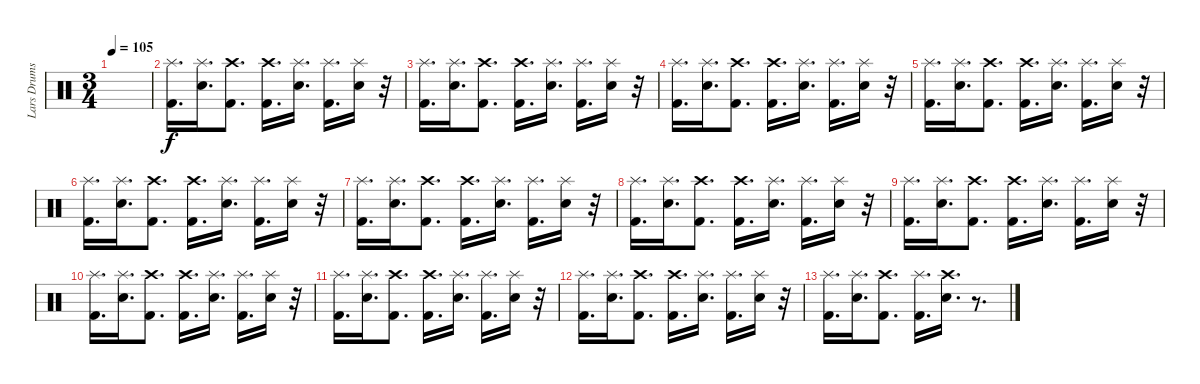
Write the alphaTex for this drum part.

\track ("Lars Drums" "Lars Drums") {instrument percussion}
\staff {score}
\articulation defaults
\ts (3 4)
\tempo 105
\clef neutral
\ks c
|
("Splash (hit)" "Kick (hit) 2").16{d} ("Splash (hit)" "Snare (hit) 2").16{d} ("Crash high (hit)" "Kick (hit) 2").8{d} ("Crash high (hit)" "Kick (hit) 2").16{d} ("Splash (hit)" "Snare (hit) 2").16{d} ("Splash (hit)" "Kick (hit) 2").16{d} ("Splash (hit)" "Snare (hit) 2").16 r.32 |
("Splash (hit)" "Kick (hit) 2").16{d} ("Splash (hit)" "Snare (hit) 2").16{d} ("Crash high (hit)" "Kick (hit) 2").8{d} ("Crash high (hit)" "Kick (hit) 2").16{d} ("Splash (hit)" "Snare (hit) 2").16{d} ("Splash (hit)" "Kick (hit) 2").16{d} ("Splash (hit)" "Snare (hit) 2").16 r.32 |
("Splash (hit)" "Kick (hit) 2").16{d} ("Splash (hit)" "Snare (hit) 2").16{d} ("Crash high (hit)" "Kick (hit) 2").8{d} ("Crash high (hit)" "Kick (hit) 2").16{d} ("Splash (hit)" "Snare (hit) 2").16{d} ("Splash (hit)" "Kick (hit) 2").16{d} ("Splash (hit)" "Snare (hit) 2").16 r.32 |
("Splash (hit)" "Kick (hit) 2").16{d} ("Splash (hit)" "Snare (hit) 2").16{d} ("Crash high (hit)" "Kick (hit) 2").8{d} ("Crash high (hit)" "Kick (hit) 2").16{d} ("Splash (hit)" "Snare (hit) 2").16{d} ("Splash (hit)" "Kick (hit) 2").16{d} ("Splash (hit)" "Snare (hit) 2").16 r.32 |
("Splash (hit)" "Kick (hit) 2").16{d} ("Splash (hit)" "Snare (hit) 2").16{d} ("Crash high (hit)" "Kick (hit) 2").8{d} ("Crash high (hit)" "Kick (hit) 2").16{d} ("Splash (hit)" "Snare (hit) 2").16{d} ("Splash (hit)" "Kick (hit) 2").16{d} ("Splash (hit)" "Snare (hit) 2").16 r.32 |
("Splash (hit)" "Kick (hit) 2").16{d} ("Splash (hit)" "Snare (hit) 2").16{d} ("Crash high (hit)" "Kick (hit) 2").8{d} ("Crash high (hit)" "Kick (hit) 2").16{d} ("Splash (hit)" "Snare (hit) 2").16{d} ("Splash (hit)" "Kick (hit) 2").16{d} ("Splash (hit)" "Snare (hit) 2").16 r.32 |
("Splash (hit)" "Kick (hit) 2").16{d} ("Splash (hit)" "Snare (hit) 2").16{d} ("Crash high (hit)" "Kick (hit) 2").8{d} ("Crash high (hit)" "Kick (hit) 2").16{d} ("Splash (hit)" "Snare (hit) 2").16{d} ("Splash (hit)" "Kick (hit) 2").16{d} ("Splash (hit)" "Snare (hit) 2").16 r.32 |
("Splash (hit)" "Kick (hit) 2").16{d} ("Splash (hit)" "Snare (hit) 2").16{d} ("Crash high (hit)" "Kick (hit) 2").8{d} ("Crash high (hit)" "Kick (hit) 2").16{d} ("Splash (hit)" "Snare (hit) 2").16{d} ("Splash (hit)" "Kick (hit) 2").16{d} ("Splash (hit)" "Snare (hit) 2").16 r.32 |
("Splash (hit)" "Kick (hit) 2").16{d} ("Splash (hit)" "Snare (hit) 2").16{d} ("Crash high (hit)" "Kick (hit) 2").8{d} ("Crash high (hit)" "Kick (hit) 2").16{d} ("Splash (hit)" "Snare (hit) 2").16{d} ("Splash (hit)" "Kick (hit) 2").16{d} ("Splash (hit)" "Snare (hit) 2").16 r.32 |
("Splash (hit)" "Kick (hit) 2").16{d} ("Splash (hit)" "Snare (hit) 2").16{d} ("Crash high (hit)" "Kick (hit) 2").8{d} ("Crash high (hit)" "Kick (hit) 2").16{d} ("Splash (hit)" "Snare (hit) 2").16{d} ("Splash (hit)" "Kick (hit) 2").16{d} ("Splash (hit)" "Snare (hit) 2").16 r.32 |
("Splash (hit)" "Kick (hit) 2").16{d} ("Splash (hit)" "Snare (hit) 2").16{d} ("Crash high (hit)" "Kick (hit) 2").8{d} ("Crash high (hit)" "Kick (hit) 2").16{d} ("Splash (hit)" "Snare (hit) 2").16{d} ("Splash (hit)" "Kick (hit) 2").16{d} ("Splash (hit)" "Snare (hit) 2").16 r.32 |
("Splash (hit)" "Kick (hit) 2").16{d} ("Splash (hit)" "Snare (hit) 2").16{d} ("Crash high (hit)" "Kick (hit) 2").8{d} ("Splash (hit)" "Kick (hit) 2").16{d} ("Crash high (hit)" "Snare (hit) 2").16{d} r.8{d}
